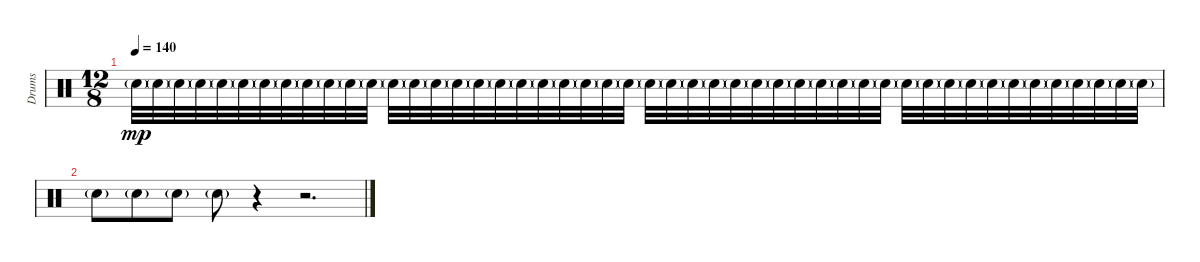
\track ("Drums" "Drums") {instrument percussion}
\staff {score}
\articulation defaults
\ts (12 8)
\tempo 140
\clef neutral
\ks c "Electric Snare (hit)"{g}.32{dy mp} "Electric Snare (hit)"{g}.32 "Electric Snare (hit)"{g}.32 "Electric Snare (hit)"{g}.32 "Electric Snare (hit)"{g}.32 "Electric Snare (hit)"{g}.32 "Electric Snare (hit)"{g}.32 "Electric Snare (hit)"{g}.32 "Electric Snare (hit)"{g}.32 "Electric Snare (hit)"{g}.32 "Electric Snare (hit)"{g}.32 "Electric Snare (hit)"{g}.32 "Electric Snare (hit)"{g}.32 "Electric Snare (hit)"{g}.32 "Electric Snare (hit)"{g}.32 "Electric Snare (hit)"{g}.32 "Electric Snare (hit)"{g}.32 "Electric Snare (hit)"{g}.32 "Electric Snare (hit)"{g}.32 "Electric Snare (hit)"{g}.32 "Electric Snare (hit)"{g}.32 "Electric Snare (hit)"{g}.32 "Electric Snare (hit)"{g}.32 "Electric Snare (hit)"{g}.32 "Electric Snare (hit)"{g}.32 "Electric Snare (hit)"{g}.32 "Electric Snare (hit)"{g}.32 "Electric Snare (hit)"{g}.32 "Electric Snare (hit)"{g}.32 "Electric Snare (hit)"{g}.32 "Electric Snare (hit)"{g}.32 "Electric Snare (hit)"{g}.32 "Electric Snare (hit)"{g}.32 "Electric Snare (hit)"{g}.32 "Electric Snare (hit)"{g}.32 "Electric Snare (hit)"{g}.32 "Electric Snare (hit)"{g}.32 "Electric Snare (hit)"{g}.32 "Electric Snare (hit)"{g}.32 "Electric Snare (hit)"{g}.32 "Electric Snare (hit)"{g}.32 "Electric Snare (hit)"{g}.32 "Electric Snare (hit)"{g}.32 "Electric Snare (hit)"{g}.32 "Electric Snare (hit)"{g}.32 "Electric Snare (hit)"{g}.32 "Electric Snare (hit)"{g}.32 "Electric Snare (hit)"{g}.32
|
"Electric Snare (hit)"{g}.8 "Electric Snare (hit)"{g}.8 "Electric Snare (hit)"{g}.8 "Electric Snare (hit)"{g}.8 r.4 r.2{d}
